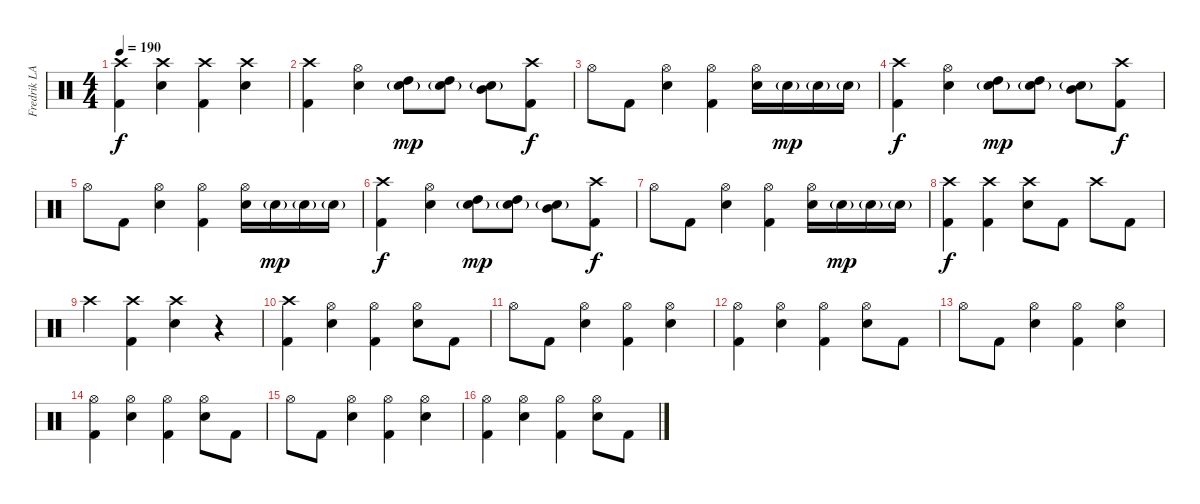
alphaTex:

\track ("Fredrik LARZON" "Fredrik LA") {instrument percussion}
\staff {score}
\articulation defaults
\ts (4 4)
\tempo 190
\clef neutral
\ks c
("Crash high (hit)" "Kick (hit) 2").4{dy f} ("Crash high (hit)" "Electric Snare (hit)").4 ("Crash high (hit)" "Kick (hit) 2").4 ("Crash high (hit)" "Electric Snare (hit)").4 |
("Crash high (hit)" "Kick (hit) 2").4 ("Hi-Hat (open)" "Electric Snare (hit)").4 ("Electric Snare (hit)"{g} "High Tom (hit)").8{dy mp} ("Electric Snare (hit)"{g} "High Tom (hit)").8 ("Electric Snare (hit)"{g} "Mid Tom (hit)").8 ("Crash high (hit)" "Kick (hit) 2").8{dy f} |
"Hi-Hat (open)".8 "Kick (hit) 2".8 ("Hi-Hat (open)" "Electric Snare (hit)").4 ("Hi-Hat (open)" "Kick (hit) 2").4 ("Hi-Hat (open)" "Electric Snare (hit)").16 "Electric Snare (hit)"{g}.16{dy mp} "Electric Snare (hit)"{g}.16 "Electric Snare (hit)"{g}.16 |
("Crash high (hit)" "Kick (hit) 2").4{dy f} ("Hi-Hat (open)" "Electric Snare (hit)").4 ("Electric Snare (hit)"{g} "High Tom (hit)").8{dy mp} ("Electric Snare (hit)"{g} "High Tom (hit)").8 ("Electric Snare (hit)"{g} "Mid Tom (hit)").8 ("Crash high (hit)" "Kick (hit) 2").8{dy f} |
"Hi-Hat (open)".8 "Kick (hit) 2".8 ("Hi-Hat (open)" "Electric Snare (hit)").4 ("Hi-Hat (open)" "Kick (hit) 2").4 ("Hi-Hat (open)" "Electric Snare (hit)").16 "Electric Snare (hit)"{g}.16{dy mp} "Electric Snare (hit)"{g}.16 "Electric Snare (hit)"{g}.16 |
("Crash high (hit)" "Kick (hit) 2").4{dy f} ("Hi-Hat (open)" "Electric Snare (hit)").4 ("Electric Snare (hit)"{g} "High Tom (hit)").8{dy mp} ("Electric Snare (hit)"{g} "High Tom (hit)").8 ("Electric Snare (hit)"{g} "Mid Tom (hit)").8 ("Crash high (hit)" "Kick (hit) 2").8{dy f} |
"Hi-Hat (open)".8 "Kick (hit) 2".8 ("Hi-Hat (open)" "Electric Snare (hit)").4 ("Hi-Hat (open)" "Kick (hit) 2").4 ("Hi-Hat (open)" "Electric Snare (hit)").16 "Electric Snare (hit)"{g}.16{dy mp} "Electric Snare (hit)"{g}.16 "Electric Snare (hit)"{g}.16 |
("Crash high (hit)" "Kick (hit) 2").4{dy f} ("Crash high (hit)" "Kick (hit) 2").4 ("Crash high (hit)" "Electric Snare (hit)").8 "Kick (hit) 2".8 "Crash high (hit)".8 "Kick (hit) 2".8 |
"Crash high (hit)".4 ("Crash high (hit)" "Kick (hit) 2").4 ("Crash high (hit)" "Electric Snare (hit)").4 r.4 |
("Crash high (hit)" "Kick (hit) 2").4 ("Hi-Hat (open)" "Electric Snare (hit)").4 ("Hi-Hat (open)" "Kick (hit) 2").4 ("Hi-Hat (open)" "Electric Snare (hit)").8 "Kick (hit) 2".8 |
"Hi-Hat (open)".8 "Kick (hit) 2".8 ("Hi-Hat (open)" "Electric Snare (hit)").4 ("Hi-Hat (open)" "Kick (hit) 2").4 ("Hi-Hat (open)" "Electric Snare (hit)").4 |
("Hi-Hat (open)" "Kick (hit) 2").4 ("Hi-Hat (open)" "Electric Snare (hit)").4 ("Hi-Hat (open)" "Kick (hit) 2").4 ("Hi-Hat (open)" "Electric Snare (hit)").8 "Kick (hit) 2".8 |
"Hi-Hat (open)".8 "Kick (hit) 2".8 ("Hi-Hat (open)" "Electric Snare (hit)").4 ("Hi-Hat (open)" "Kick (hit) 2").4 ("Hi-Hat (open)" "Electric Snare (hit)").4 |
("Hi-Hat (open)" "Kick (hit) 2").4 ("Hi-Hat (open)" "Electric Snare (hit)").4 ("Hi-Hat (open)" "Kick (hit) 2").4 ("Hi-Hat (open)" "Electric Snare (hit)").8 "Kick (hit) 2".8 |
"Hi-Hat (open)".8 "Kick (hit) 2".8 ("Hi-Hat (open)" "Electric Snare (hit)").4 ("Hi-Hat (open)" "Kick (hit) 2").4 ("Hi-Hat (open)" "Electric Snare (hit)").4 |
("Hi-Hat (open)" "Kick (hit) 2").4 ("Hi-Hat (open)" "Electric Snare (hit)").4 ("Hi-Hat (open)" "Kick (hit) 2").4 ("Hi-Hat (open)" "Electric Snare (hit)").8 "Kick (hit) 2".8
